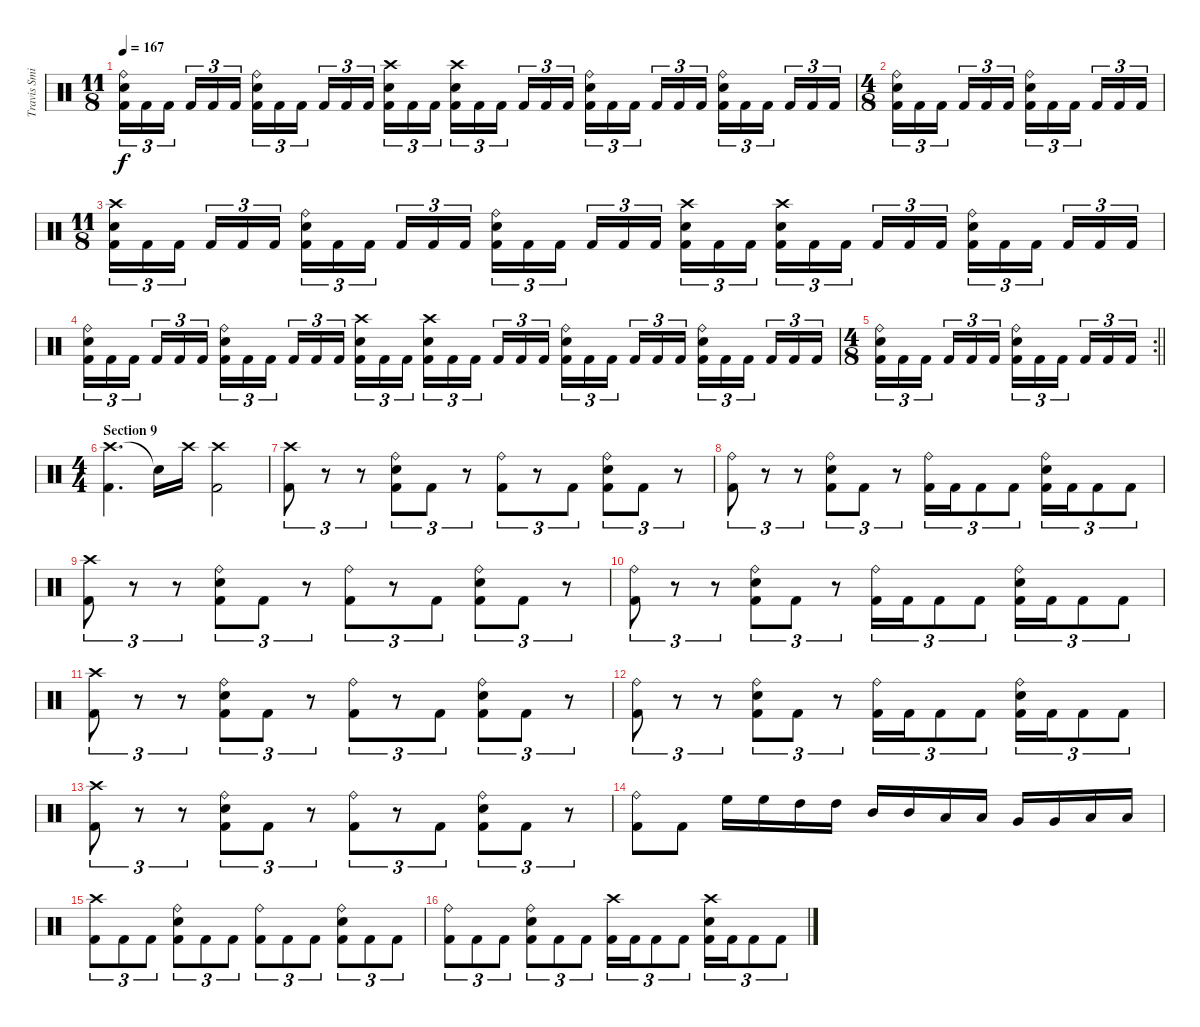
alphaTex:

\track ("Travis Smith" "Travis Smi") {instrument percussion}
\staff {score}
\articulation defaults
\ts (11 8)
\tempo 167
\clef neutral
\ks c
("Ride (bell)" "Snare (hit) 2" "Kick (hit) 2").16{tu (3 2) dy f} "Kick (hit) 2".16{tu (3 2)} "Kick (hit) 2".16{tu (3 2)} "Kick (hit) 2".16{tu (3 2)} "Kick (hit) 2".16{tu (3 2)} "Kick (hit) 2".16{tu (3 2)} ("Ride (bell)" "Snare (hit) 2" "Kick (hit) 2").16{tu (3 2)} "Kick (hit) 2".16{tu (3 2)} "Kick (hit) 2".16{tu (3 2)} "Kick (hit) 2".16{tu (3 2)} "Kick (hit) 2".16{tu (3 2)} "Kick (hit) 2".16{tu (3 2)} ("Crash high (hit)" "Snare (hit) 2" "Kick (hit) 2").16{tu (3 2)} "Kick (hit) 2".16{tu (3 2)} "Kick (hit) 2".16{tu (3 2)} ("Crash high (hit)" "Snare (hit) 2" "Kick (hit) 2").16{tu (3 2)} "Kick (hit) 2".16{tu (3 2)} "Kick (hit) 2".16{tu (3 2)} "Kick (hit) 2".16{tu (3 2)} "Kick (hit) 2".16{tu (3 2)} "Kick (hit) 2".16{tu (3 2)} ("Ride (bell)" "Snare (hit) 2" "Kick (hit) 2").16{tu (3 2)} "Kick (hit) 2".16{tu (3 2)} "Kick (hit) 2".16{tu (3 2)} "Kick (hit) 2".16{tu (3 2)} "Kick (hit) 2".16{tu (3 2)} "Kick (hit) 2".16{tu (3 2)} ("Ride (bell)" "Snare (hit) 2" "Kick (hit) 2").16{tu (3 2)} "Kick (hit) 2".16{tu (3 2)} "Kick (hit) 2".16{tu (3 2)} "Kick (hit) 2".16{tu (3 2)} "Kick (hit) 2".16{tu (3 2)} "Kick (hit) 2".16{tu (3 2)} |
\ts (4 8)
("Ride (bell)" "Snare (hit) 2" "Kick (hit) 2").16{tu (3 2)} "Kick (hit) 2".16{tu (3 2)} "Kick (hit) 2".16{tu (3 2)} "Kick (hit) 2".16{tu (3 2)} "Kick (hit) 2".16{tu (3 2)} "Kick (hit) 2".16{tu (3 2)} ("Ride (bell)" "Snare (hit) 2" "Kick (hit) 2").16{tu (3 2)} "Kick (hit) 2".16{tu (3 2)} "Kick (hit) 2".16{tu (3 2)} "Kick (hit) 2".16{tu (3 2)} "Kick (hit) 2".16{tu (3 2)} "Kick (hit) 2".16{tu (3 2)} |
\ts (11 8)
("Crash high (hit)" "Snare (hit) 2" "Kick (hit) 2").16{tu (3 2)} "Kick (hit) 2".16{tu (3 2)} "Kick (hit) 2".16{tu (3 2)} "Kick (hit) 2".16{tu (3 2)} "Kick (hit) 2".16{tu (3 2)} "Kick (hit) 2".16{tu (3 2)} ("Ride (bell)" "Snare (hit) 2" "Kick (hit) 2").16{tu (3 2)} "Kick (hit) 2".16{tu (3 2)} "Kick (hit) 2".16{tu (3 2)} "Kick (hit) 2".16{tu (3 2)} "Kick (hit) 2".16{tu (3 2)} "Kick (hit) 2".16{tu (3 2)} ("Ride (bell)" "Snare (hit) 2" "Kick (hit) 2").16{tu (3 2)} "Kick (hit) 2".16{tu (3 2)} "Kick (hit) 2".16{tu (3 2)} "Kick (hit) 2".16{tu (3 2)} "Kick (hit) 2".16{tu (3 2)} "Kick (hit) 2".16{tu (3 2)} ("Crash high (hit)" "Snare (hit) 2" "Kick (hit) 2").16{tu (3 2)} "Kick (hit) 2".16{tu (3 2)} "Kick (hit) 2".16{tu (3 2)} ("Crash high (hit)" "Snare (hit) 2" "Kick (hit) 2").16{tu (3 2)} "Kick (hit) 2".16{tu (3 2)} "Kick (hit) 2".16{tu (3 2)} "Kick (hit) 2".16{tu (3 2)} "Kick (hit) 2".16{tu (3 2)} "Kick (hit) 2".16{tu (3 2)} ("Ride (bell)" "Snare (hit) 2" "Kick (hit) 2").16{tu (3 2)} "Kick (hit) 2".16{tu (3 2)} "Kick (hit) 2".16{tu (3 2)} "Kick (hit) 2".16{tu (3 2)} "Kick (hit) 2".16{tu (3 2)} "Kick (hit) 2".16{tu (3 2)} |
("Ride (bell)" "Snare (hit) 2" "Kick (hit) 2").16{tu (3 2)} "Kick (hit) 2".16{tu (3 2)} "Kick (hit) 2".16{tu (3 2)} "Kick (hit) 2".16{tu (3 2)} "Kick (hit) 2".16{tu (3 2)} "Kick (hit) 2".16{tu (3 2)} ("Ride (bell)" "Snare (hit) 2" "Kick (hit) 2").16{tu (3 2)} "Kick (hit) 2".16{tu (3 2)} "Kick (hit) 2".16{tu (3 2)} "Kick (hit) 2".16{tu (3 2)} "Kick (hit) 2".16{tu (3 2)} "Kick (hit) 2".16{tu (3 2)} ("Crash high (hit)" "Snare (hit) 2" "Kick (hit) 2").16{tu (3 2)} "Kick (hit) 2".16{tu (3 2)} "Kick (hit) 2".16{tu (3 2)} ("Crash high (hit)" "Snare (hit) 2" "Kick (hit) 2").16{tu (3 2)} "Kick (hit) 2".16{tu (3 2)} "Kick (hit) 2".16{tu (3 2)} "Kick (hit) 2".16{tu (3 2)} "Kick (hit) 2".16{tu (3 2)} "Kick (hit) 2".16{tu (3 2)} ("Ride (bell)" "Snare (hit) 2" "Kick (hit) 2").16{tu (3 2)} "Kick (hit) 2".16{tu (3 2)} "Kick (hit) 2".16{tu (3 2)} "Kick (hit) 2".16{tu (3 2)} "Kick (hit) 2".16{tu (3 2)} "Kick (hit) 2".16{tu (3 2)} ("Ride (bell)" "Snare (hit) 2" "Kick (hit) 2").16{tu (3 2)} "Kick (hit) 2".16{tu (3 2)} "Kick (hit) 2".16{tu (3 2)} "Kick (hit) 2".16{tu (3 2)} "Kick (hit) 2".16{tu (3 2)} "Kick (hit) 2".16{tu (3 2)} |
\rc 2
\ts (4 8)
\barLineRight lightlight
("Ride (bell)" "Snare (hit) 2" "Kick (hit) 2").16{tu (3 2)} "Kick (hit) 2".16{tu (3 2)} "Kick (hit) 2".16{tu (3 2)} "Kick (hit) 2".16{tu (3 2)} "Kick (hit) 2".16{tu (3 2)} "Kick (hit) 2".16{tu (3 2)} ("Ride (bell)" "Snare (hit) 2" "Kick (hit) 2").16{tu (3 2)} "Kick (hit) 2".16{tu (3 2)} "Kick (hit) 2".16{tu (3 2)} "Kick (hit) 2".16{tu (3 2)} "Kick (hit) 2".16{tu (3 2)} "Kick (hit) 2".16{tu (3 2)} |
\ts (4 4)
\section ("" "Section 9")
("Crash high (hit)" "Kick (hit) 2").4{d} "Snare (hit)"{t}.16 "Crash high (hit)".16{volume 0} ("Crash high (hit)" "Kick (hit) 2").2{volume 16} |
("Crash high (hit)" "Kick (hit) 2").8{tu (3 2)} r.8{tu (3 2)} r.8{tu (3 2)} ("Ride (bell)" "Snare (hit) 2" "Kick (hit) 2").8{tu (3 2)} "Kick (hit) 2".8{tu (3 2)} r.8{tu (3 2)} ("Ride (bell)" "Kick (hit) 2").8{tu (3 2)} r.8{tu (3 2)} "Kick (hit) 2".8{tu (3 2)} ("Ride (bell)" "Snare (hit) 2" "Kick (hit) 2").8{tu (3 2)} "Kick (hit) 2".8{tu (3 2)} r.8{tu (3 2)} |
("Ride (bell)" "Kick (hit) 2").8{tu (3 2)} r.8{tu (3 2)} r.8{tu (3 2)} ("Ride (bell)" "Snare (hit) 2" "Kick (hit) 2").8{tu (3 2)} "Kick (hit) 2".8{tu (3 2)} r.8{tu (3 2)} ("Ride (bell)" "Kick (hit) 2").16{tu (3 2)} "Kick (hit) 2".16{tu (3 2)} "Kick (hit) 2".8{tu (3 2)} "Kick (hit) 2".8{tu (3 2)} ("Ride (bell)" "Snare (hit) 2" "Kick (hit) 2").16{tu (3 2)} "Kick (hit) 2".16{tu (3 2)} "Kick (hit) 2".8{tu (3 2)} "Kick (hit) 2".8{tu (3 2)} |
("Crash high (hit)" "Kick (hit) 2").8{tu (3 2)} r.8{tu (3 2)} r.8{tu (3 2)} ("Ride (bell)" "Snare (hit) 2" "Kick (hit) 2").8{tu (3 2)} "Kick (hit) 2".8{tu (3 2)} r.8{tu (3 2)} ("Ride (bell)" "Kick (hit) 2").8{tu (3 2)} r.8{tu (3 2)} "Kick (hit) 2".8{tu (3 2)} ("Ride (bell)" "Snare (hit) 2" "Kick (hit) 2").8{tu (3 2)} "Kick (hit) 2".8{tu (3 2)} r.8{tu (3 2)} |
("Ride (bell)" "Kick (hit) 2").8{tu (3 2)} r.8{tu (3 2)} r.8{tu (3 2)} ("Ride (bell)" "Snare (hit) 2" "Kick (hit) 2").8{tu (3 2)} "Kick (hit) 2".8{tu (3 2)} r.8{tu (3 2)} ("Ride (bell)" "Kick (hit) 2").16{tu (3 2)} "Kick (hit) 2".16{tu (3 2)} "Kick (hit) 2".8{tu (3 2)} "Kick (hit) 2".8{tu (3 2)} ("Ride (bell)" "Snare (hit) 2" "Kick (hit) 2").16{tu (3 2)} "Kick (hit) 2".16{tu (3 2)} "Kick (hit) 2".8{tu (3 2)} "Kick (hit) 2".8{tu (3 2)} |
("Crash high (hit)" "Kick (hit) 2").8{tu (3 2)} r.8{tu (3 2)} r.8{tu (3 2)} ("Ride (bell)" "Snare (hit) 2" "Kick (hit) 2").8{tu (3 2)} "Kick (hit) 2".8{tu (3 2)} r.8{tu (3 2)} ("Ride (bell)" "Kick (hit) 2").8{tu (3 2)} r.8{tu (3 2)} "Kick (hit) 2".8{tu (3 2)} ("Ride (bell)" "Snare (hit) 2" "Kick (hit) 2").8{tu (3 2)} "Kick (hit) 2".8{tu (3 2)} r.8{tu (3 2)} |
("Ride (bell)" "Kick (hit) 2").8{tu (3 2)} r.8{tu (3 2)} r.8{tu (3 2)} ("Ride (bell)" "Snare (hit) 2" "Kick (hit) 2").8{tu (3 2)} "Kick (hit) 2".8{tu (3 2)} r.8{tu (3 2)} ("Ride (bell)" "Kick (hit) 2").16{tu (3 2)} "Kick (hit) 2".16{tu (3 2)} "Kick (hit) 2".8{tu (3 2)} "Kick (hit) 2".8{tu (3 2)} ("Ride (bell)" "Snare (hit) 2" "Kick (hit) 2").16{tu (3 2)} "Kick (hit) 2".16{tu (3 2)} "Kick (hit) 2".8{tu (3 2)} "Kick (hit) 2".8{tu (3 2)} |
("Crash high (hit)" "Kick (hit) 2").8{tu (3 2)} r.8{tu (3 2)} r.8{tu (3 2)} ("Ride (bell)" "Snare (hit) 2" "Kick (hit) 2").8{tu (3 2)} "Kick (hit) 2".8{tu (3 2)} r.8{tu (3 2)} ("Ride (bell)" "Kick (hit) 2").8{tu (3 2)} r.8{tu (3 2)} "Kick (hit) 2".8{tu (3 2)} ("Ride (bell)" "Snare (hit) 2" "Kick (hit) 2").8{tu (3 2)} "Kick (hit) 2".8{tu (3 2)} r.8{tu (3 2)} |
("Ride (bell)" "Kick (hit) 2").8 "Kick (hit) 2".8 "High Floor Tom (hit)".16 "High Floor Tom (hit)".16 "High Tom (hit)".16 "High Tom (hit)".16 "Mid Tom (hit)".16 "Mid Tom (hit)".16 "Low Tom (hit)".16 "Low Tom (hit)".16 "Very Low Tom (hit)".16 "Very Low Tom (hit)".16 "Low Floor Tom (hit)".16 "Low Floor Tom (hit)".16 |
("Crash high (hit)" "Kick (hit) 2").8{tu (3 2)} "Kick (hit) 2".8{tu (3 2)} "Kick (hit) 2".8{tu (3 2)} ("Ride (bell)" "Snare (hit) 2" "Kick (hit) 2").8{tu (3 2)} "Kick (hit) 2".8{tu (3 2)} "Kick (hit) 2".8{tu (3 2)} ("Ride (bell)" "Kick (hit) 2").8{tu (3 2)} "Kick (hit) 2".8{tu (3 2)} "Kick (hit) 2".8{tu (3 2)} ("Ride (bell)" "Snare (hit) 2" "Kick (hit) 2").8{tu (3 2)} "Kick (hit) 2".8{tu (3 2)} "Kick (hit) 2".8{tu (3 2)} |
("Ride (bell)" "Kick (hit) 2").8{tu (3 2)} "Kick (hit) 2".8{tu (3 2)} "Kick (hit) 2".8{tu (3 2)} ("Ride (bell)" "Snare (hit) 2" "Kick (hit) 2").8{tu (3 2)} "Kick (hit) 2".8{tu (3 2)} "Kick (hit) 2".8{tu (3 2)} ("Crash high (hit)" "Kick (hit) 2").16{tu (3 2)} "Kick (hit) 2".16{tu (3 2)} "Kick (hit) 2".8{tu (3 2)} "Kick (hit) 2".8{tu (3 2)} ("Crash high (hit)" "Snare (hit) 2" "Kick (hit) 2").16{tu (3 2)} "Kick (hit) 2".16{tu (3 2)} "Kick (hit) 2".8{tu (3 2)} "Kick (hit) 2".8{tu (3 2)}
